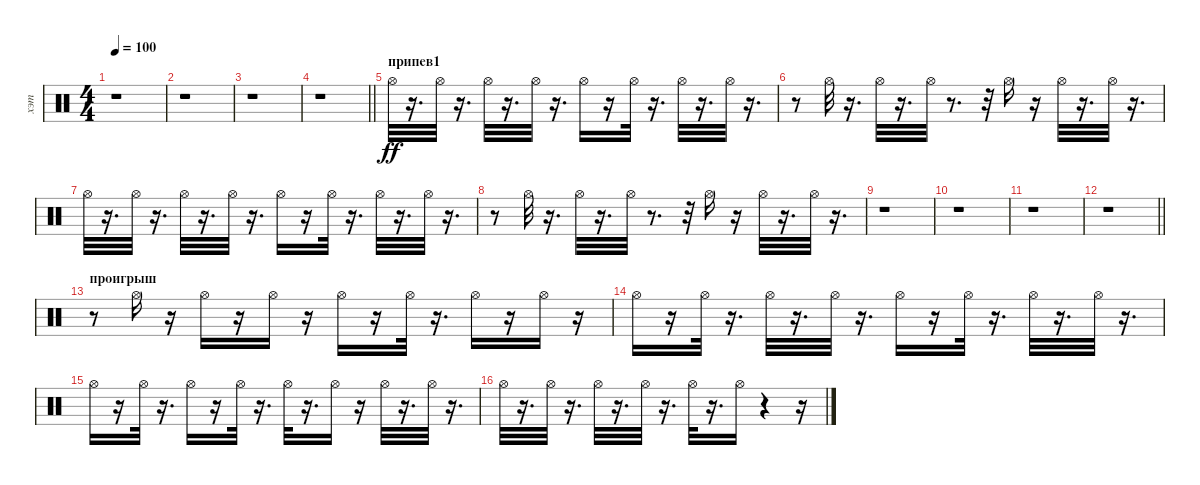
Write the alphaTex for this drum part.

\track ("хэт" "хэт") {instrument percussion}
\staff {score}
\articulation defaults
\ts (4 4)
\tempo 100
\clef neutral
\ks c
r.1{dy ff} |
r.1 |
r.1 |
\barLineRight lightlight
r.1 |
\section ("" "припев1")
"Hi-Hat (open)".32 r.16{d} "Hi-Hat (open)".32 r.16{d} "Hi-Hat (open)".32 r.16{d} "Hi-Hat (open)".32 r.16{d} "Hi-Hat (open)".16 r.16 "Hi-Hat (open)".32 r.16{d} "Hi-Hat (open)".32 r.16{d} "Hi-Hat (open)".32 r.16{d} |
r.8 "Hi-Hat (open)".32 r.16{d} "Hi-Hat (open)".32 r.16{d} "Hi-Hat (open)".32 r.8{d} r.32 "Hi-Hat (open)".16 r.16 "Hi-Hat (open)".32 r.16{d} "Hi-Hat (open)".32 r.16{d} |
"Hi-Hat (open)".32 r.16{d} "Hi-Hat (open)".32 r.16{d} "Hi-Hat (open)".32 r.16{d} "Hi-Hat (open)".32 r.16{d} "Hi-Hat (open)".16 r.16 "Hi-Hat (open)".32 r.16{d} "Hi-Hat (open)".32 r.16{d} "Hi-Hat (open)".32 r.16{d} |
r.8 "Hi-Hat (open)".32 r.16{d} "Hi-Hat (open)".32 r.16{d} "Hi-Hat (open)".32 r.8{d} r.32 "Hi-Hat (open)".16 r.16 "Hi-Hat (open)".32 r.16{d} "Hi-Hat (open)".32 r.16{d} |
r.1 |
r.1 |
r.1 |
\barLineRight lightlight
r.1 |
\section ("" "проигрыш")
r.8 "Hi-Hat (open)".16 r.16 "Hi-Hat (open)".16 r.16 "Hi-Hat (open)".16 r.16 "Hi-Hat (open)".16 r.16 "Hi-Hat (open)".32 r.16{d} "Hi-Hat (open)".16 r.16 "Hi-Hat (open)".16 r.16 |
"Hi-Hat (open)".16 r.16 "Hi-Hat (open)".32 r.16{d} "Hi-Hat (open)".32 r.16{d} "Hi-Hat (open)".32 r.16{d} "Hi-Hat (open)".16 r.16 "Hi-Hat (open)".32 r.16{d} "Hi-Hat (open)".32 r.16{d} "Hi-Hat (open)".32 r.16{d} |
"Hi-Hat (open)".16 r.16 "Hi-Hat (open)".32 r.16{d} "Hi-Hat (open)".16 r.16 "Hi-Hat (open)".32 r.16{d} "Hi-Hat (open)".32 r.16{d} "Hi-Hat (open)".16 r.16 "Hi-Hat (open)".32 r.16{d} "Hi-Hat (open)".32 r.16{d} |
"Hi-Hat (open)".32 r.16{d} "Hi-Hat (open)".32 r.16{d} "Hi-Hat (open)".32 r.16{d} "Hi-Hat (open)".32 r.16{d} "Hi-Hat (open)".32 r.16{d} "Hi-Hat (open)".16 r.4 r.16
